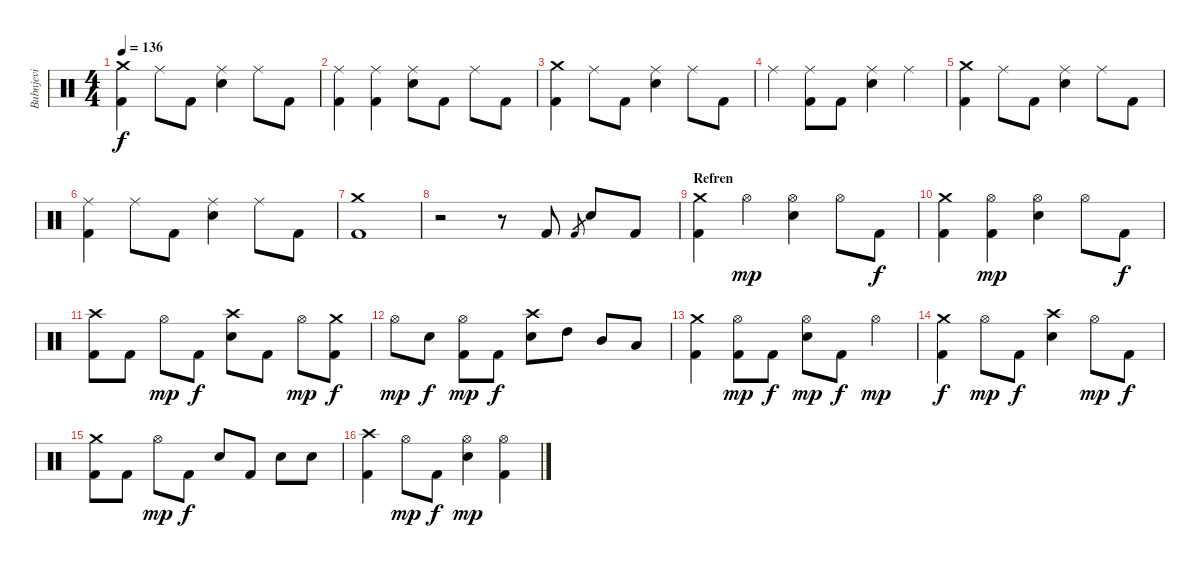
\track ("Bubnjevi" "Bubnjevi") {instrument percussion}
\staff {score}
\articulation defaults
\ts (4 4)
\tempo 136
\clef neutral
\ks c
("Crash medium (hit)" "Kick (hit) 2").4{dy f} "Ride (middle)".8 "Kick (hit) 2".8 ("Ride (middle)" "Snare (hit) 2").4 "Ride (middle)".8 "Kick (hit) 2".8 |
("Ride (middle)" "Kick (hit) 2").4 ("Ride (middle)" "Kick (hit) 2").4 ("Ride (middle)" "Snare (hit) 2").8 "Kick (hit) 2".8 "Ride (middle)".8 "Kick (hit) 2".8 |
("Crash medium (hit)" "Kick (hit) 2").4 "Ride (middle)".8 "Kick (hit) 2".8 ("Ride (middle)" "Snare (hit) 2").4 "Ride (middle)".8 "Kick (hit) 2".8 |
"Ride (middle)".4 ("Ride (middle)" "Kick (hit) 2").8 "Kick (hit) 2".8 ("Ride (middle)" "Snare (hit) 2").4 "Ride (middle)".4 |
("Crash medium (hit)" "Kick (hit) 2").4 "Ride (middle)".8 "Kick (hit) 2".8 ("Ride (middle)" "Snare (hit) 2").4 "Ride (middle)".8 "Kick (hit) 2".8 |
("Ride (middle)" "Kick (hit) 2").4 "Ride (middle)".8 "Kick (hit) 2".8 ("Ride (middle)" "Snare (hit) 2").4 "Ride (middle)".8 "Kick (hit) 2".8 |
("Crash medium (hit)" "Kick (hit) 2").1 |
r.2 r.8 "Kick (hit) 2".8 "Kick (hit) 2".8{gr} "Snare (hit) 2".8 "Kick (hit) 2".8 |
\section ("" "Refren")
("Crash medium (hit)" "Kick (hit) 2").4 "Hi-Hat (open)".4{dy mp} ("Hi-Hat (open)" "Snare (hit) 2").4 "Hi-Hat (open)".8 "Kick (hit) 2".8{dy f} |
("Crash medium (hit)" "Kick (hit) 2").4 ("Hi-Hat (open)" "Kick (hit) 2").4{dy mp} ("Hi-Hat (open)" "Snare (hit) 2").4 "Hi-Hat (open)".8 "Kick (hit) 2".8{dy f} |
("Crash high (hit)" "Kick (hit) 2").8 "Kick (hit) 2".8 "Hi-Hat (open)".8{dy mp} "Kick (hit) 2".8{dy f} ("Crash high (hit)" "Snare (hit) 2").8 "Kick (hit) 2".8 "Hi-Hat (open)".8{dy mp} ("Crash medium (hit)" "Kick (hit) 2").8{dy f} |
"Hi-Hat (open)".8{dy mp} "Snare (hit) 2".8{dy f} ("Hi-Hat (open)" "Kick (hit) 2").8{dy mp} "Kick (hit) 2".8{dy f} ("Crash high (hit)" "Snare (hit) 2").8 "High Tom (hit)".8 "Mid Tom (hit)".8 "Low Tom (hit)".8 |
("Crash medium (hit)" "Kick (hit) 2").4 ("Hi-Hat (open)" "Kick (hit) 2").8{dy mp} "Kick (hit) 2".8{dy f} ("Hi-Hat (open)" "Snare (hit) 2").8{dy mp} "Kick (hit) 2".8{dy f} "Hi-Hat (open)".4{dy mp} |
("Crash medium (hit)" "Kick (hit) 2").4{dy f} "Hi-Hat (open)".8{dy mp} "Kick (hit) 2".8{dy f} ("Crash high (hit)" "Snare (hit) 2").4 "Hi-Hat (open)".8{dy mp} "Kick (hit) 2".8{dy f} |
("Crash medium (hit)" "Kick (hit) 2").8 "Kick (hit) 2".8 "Hi-Hat (open)".8{dy mp} "Kick (hit) 2".8{dy f} "Snare (hit) 2".8 "Kick (hit) 2".8 "Snare (hit) 2".8 "Snare (hit) 2".8 |
("Crash high (hit)" "Kick (hit) 2").4 "Hi-Hat (open)".8{dy mp} "Kick (hit) 2".8{dy f} ("Hi-Hat (open)" "Snare (hit) 2").4{dy mp} ("Hi-Hat (open)" "Kick (hit) 2").4
